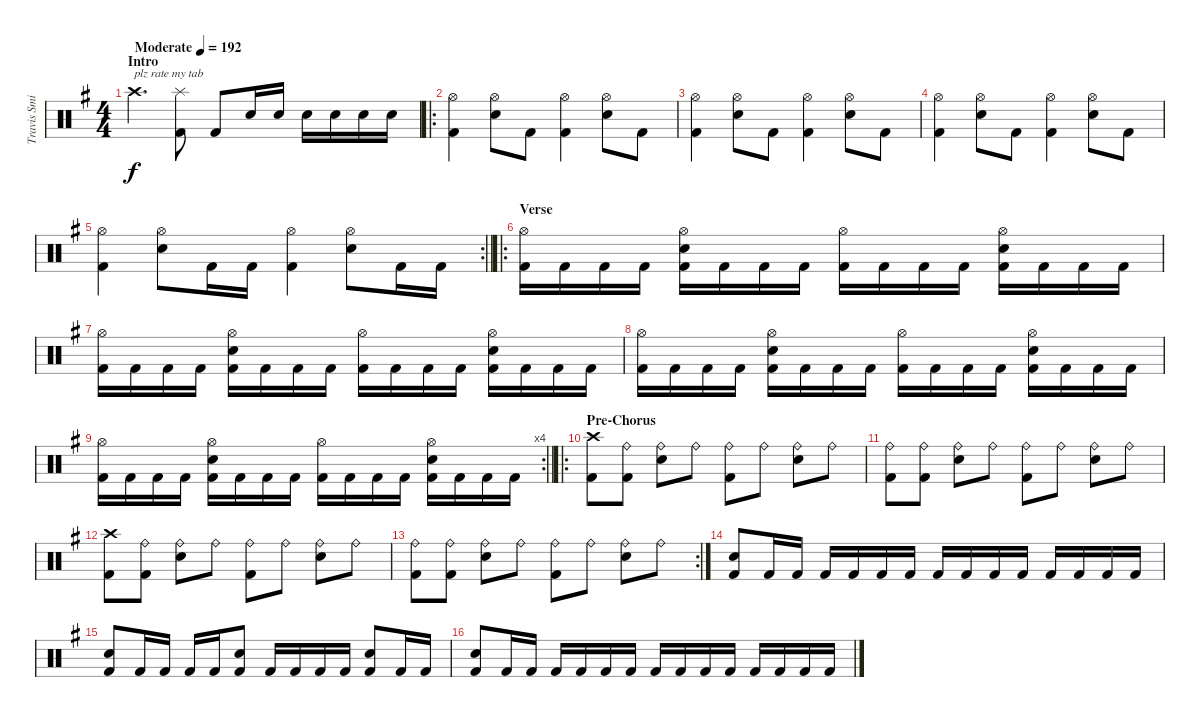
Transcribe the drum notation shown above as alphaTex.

\track ("Travis Smith" "Travis Smi") {instrument percussion}
\staff {score}
\articulation defaults
\ts (4 4)
\section ("" "Intro")
\tempo (192 "Moderate")
\clef neutral
\ks eminor "Crash high (hit)".4{d txt "plz rate my tab" dy f}
("Splash (hit)" "Kick (hit) 2").8 "Kick (hit) 2".8 "Snare (hit) 2".16 "Snare (hit) 2".16 "Snare (hit) 2".16 "Snare (hit) 2".16 "Snare (hit) 2".16 "Snare (hit) 2".16 |
\ro
("Hi-Hat (open)" "Kick (hit) 2").4 ("Hi-Hat (open)" "Snare (hit) 2").8 "Kick (hit) 2".8 ("Hi-Hat (open)" "Kick (hit) 2").4 ("Hi-Hat (open)" "Snare (hit) 2").8 "Kick (hit) 2".8 |
("Hi-Hat (open)" "Kick (hit) 2").4 ("Hi-Hat (open)" "Snare (hit) 2").8 "Kick (hit) 2".8 ("Hi-Hat (open)" "Kick (hit) 2").4 ("Hi-Hat (open)" "Snare (hit) 2").8 "Kick (hit) 2".8 |
("Hi-Hat (open)" "Kick (hit) 2").4 ("Hi-Hat (open)" "Snare (hit) 2").8 "Kick (hit) 2".8 ("Hi-Hat (open)" "Kick (hit) 2").4 ("Hi-Hat (open)" "Snare (hit) 2").8 "Kick (hit) 2".8 |
\rc 2
\barLineRight lightlight
("Hi-Hat (open)" "Kick (hit) 2").4 ("Hi-Hat (open)" "Snare (hit) 2").8 "Kick (hit) 2".16 "Kick (hit) 2".16 ("Hi-Hat (open)" "Kick (hit) 2").4 ("Hi-Hat (open)" "Snare (hit) 2").8 "Kick (hit) 2".16 "Kick (hit) 2".16 |
\ro
\section ("" "Verse")
("Hi-Hat (open)" "Kick (hit) 2").16 "Kick (hit) 2".16 "Kick (hit) 2".16 "Kick (hit) 2".16 ("Hi-Hat (open)" "Snare (hit) 2" "Kick (hit) 2").16 "Kick (hit) 2".16 "Kick (hit) 2".16 "Kick (hit) 2".16 ("Hi-Hat (open)" "Kick (hit) 2").16 "Kick (hit) 2".16 "Kick (hit) 2".16 "Kick (hit) 2".16 ("Hi-Hat (open)" "Snare (hit) 2" "Kick (hit) 2").16 "Kick (hit) 2".16 "Kick (hit) 2".16 "Kick (hit) 2".16 |
("Hi-Hat (open)" "Kick (hit) 2").16 "Kick (hit) 2".16 "Kick (hit) 2".16 "Kick (hit) 2".16 ("Hi-Hat (open)" "Snare (hit) 2" "Kick (hit) 2").16 "Kick (hit) 2".16 "Kick (hit) 2".16 "Kick (hit) 2".16 ("Hi-Hat (open)" "Kick (hit) 2").16 "Kick (hit) 2".16 "Kick (hit) 2".16 "Kick (hit) 2".16 ("Hi-Hat (open)" "Snare (hit) 2" "Kick (hit) 2").16 "Kick (hit) 2".16 "Kick (hit) 2".16 "Kick (hit) 2".16 |
("Hi-Hat (open)" "Kick (hit) 2").16 "Kick (hit) 2".16 "Kick (hit) 2".16 "Kick (hit) 2".16 ("Hi-Hat (open)" "Snare (hit) 2" "Kick (hit) 2").16 "Kick (hit) 2".16 "Kick (hit) 2".16 "Kick (hit) 2".16 ("Hi-Hat (open)" "Kick (hit) 2").16 "Kick (hit) 2".16 "Kick (hit) 2".16 "Kick (hit) 2".16 ("Hi-Hat (open)" "Snare (hit) 2" "Kick (hit) 2").16 "Kick (hit) 2".16 "Kick (hit) 2".16 "Kick (hit) 2".16 |
\rc 4
\barLineRight lightlight
("Hi-Hat (open)" "Kick (hit) 2").16 "Kick (hit) 2".16 "Kick (hit) 2".16 "Kick (hit) 2".16 ("Hi-Hat (open)" "Snare (hit) 2" "Kick (hit) 2").16 "Kick (hit) 2".16 "Kick (hit) 2".16 "Kick (hit) 2".16 ("Hi-Hat (open)" "Kick (hit) 2").16 "Kick (hit) 2".16 "Kick (hit) 2".16 "Kick (hit) 2".16 ("Hi-Hat (open)" "Snare (hit) 2" "Kick (hit) 2").16 "Kick (hit) 2".16 "Kick (hit) 2".16 "Kick (hit) 2".16 |
\ro
\section ("" "Pre-Chorus")
("Crash high (hit)" "Kick (hit) 2").8 ("Ride (bell)" "Kick (hit) 2").8 ("Ride (bell)" "Snare (hit) 2").8 "Ride (bell)".8 ("Ride (bell)" "Kick (hit) 2").8 "Ride (bell)".8 ("Ride (bell)" "Snare (hit) 2").8 "Ride (bell)".8 |
("Ride (bell)" "Kick (hit) 2").8 ("Ride (bell)" "Kick (hit) 2").8 ("Ride (bell)" "Snare (hit) 2").8 "Ride (bell)".8 ("Ride (bell)" "Kick (hit) 2").8 "Ride (bell)".8 ("Ride (bell)" "Snare (hit) 2").8 "Ride (bell)".8 |
("Crash high (hit)" "Kick (hit) 2").8 ("Ride (bell)" "Kick (hit) 2").8 ("Ride (bell)" "Snare (hit) 2").8 "Ride (bell)".8 ("Ride (bell)" "Kick (hit) 2").8 "Ride (bell)".8 ("Ride (bell)" "Snare (hit) 2").8 "Ride (bell)".8 |
\rc 2
("Ride (bell)" "Kick (hit) 2").8 ("Ride (bell)" "Kick (hit) 2").8 ("Ride (bell)" "Snare (hit) 2").8 "Ride (bell)".8 ("Ride (bell)" "Kick (hit) 2").8 "Ride (bell)".8 ("Ride (bell)" "Snare (hit) 2").8 "Ride (bell)".8 |
("Snare (hit) 2" "Kick (hit) 2").8 "Kick (hit) 2".16 "Kick (hit) 2".16 "Kick (hit) 2".16 "Kick (hit) 2".16 "Kick (hit) 2".16 "Kick (hit) 2".16 "Kick (hit) 2".16 "Kick (hit) 2".16 "Kick (hit) 2".16 "Kick (hit) 2".16 "Kick (hit) 2".16 "Kick (hit) 2".16 "Kick (hit) 2".16 "Kick (hit) 2".16 |
("Snare (hit) 2" "Kick (hit) 2").8 "Kick (hit) 2".16 "Kick (hit) 2".16 "Kick (hit) 2".16 "Kick (hit) 2".16 ("Kick (hit) 2" "Snare (hit) 2").8 "Kick (hit) 2".16 "Kick (hit) 2".16 "Kick (hit) 2".16 "Kick (hit) 2".16 ("Kick (hit) 2" "Snare (hit) 2").8 "Kick (hit) 2".16 "Kick (hit) 2".16 |
("Snare (hit) 2" "Kick (hit) 2").8 "Kick (hit) 2".16 "Kick (hit) 2".16 "Kick (hit) 2".16 "Kick (hit) 2".16 "Kick (hit) 2".16 "Kick (hit) 2".16 "Kick (hit) 2".16 "Kick (hit) 2".16 "Kick (hit) 2".16 "Kick (hit) 2".16 "Kick (hit) 2".16 "Kick (hit) 2".16 "Kick (hit) 2".16 "Kick (hit) 2".16
